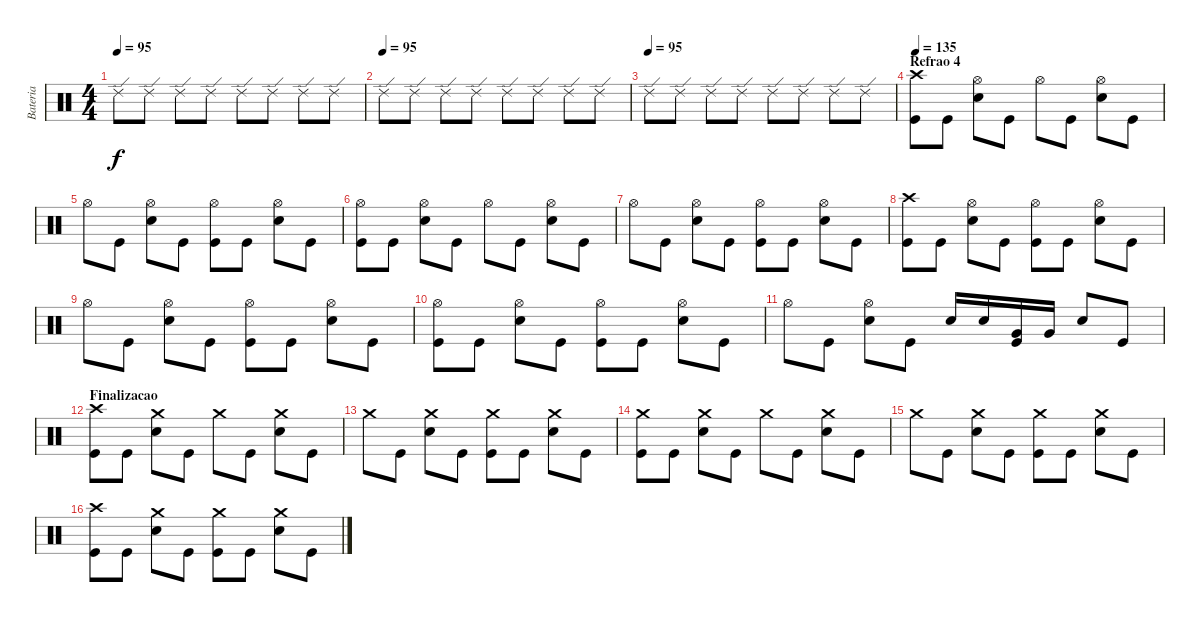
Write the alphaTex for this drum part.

\track ("Bateria" "Bateria") {instrument percussion}
\staff {score}
\articulation defaults
\ts (4 4)
\tempo 95
\clef neutral
\ks c "Ride (edge) 2".8{dy f} "Ride (edge) 2".8 "Ride (edge) 2".8 "Ride (edge) 2".8 "Ride (edge) 2".8 "Ride (edge) 2".8 "Ride (edge) 2".8 "Ride (edge) 2".8
|
\tempo (95)
"Ride (edge) 2".8 "Ride (edge) 2".8 "Ride (edge) 2".8 "Ride (edge) 2".8 "Ride (edge) 2".8 "Ride (edge) 2".8 "Ride (edge) 2".8 "Ride (edge) 2".8 |
\tempo (95)
"Ride (edge) 2".8 "Ride (edge) 2".8 "Ride (edge) 2".8 "Ride (edge) 2".8 "Ride (edge) 2".8 "Ride (edge) 2".8 "Ride (edge) 2".8 "Ride (edge) 2".8 |
\section ("" "Refrao 4")
\tempo 135
("Crash high (hit)" "Kick (hit)").8 "Kick (hit)".8 ("Hi-Hat (open)" "Snare (hit) 2").8 "Kick (hit)".8 "Hi-Hat (open)".8 "Kick (hit)".8 ("Hi-Hat (open)" "Snare (hit) 2").8 "Kick (hit)".8 |
"Hi-Hat (open)".8 "Kick (hit)".8 ("Hi-Hat (open)" "Snare (hit) 2").8 "Kick (hit)".8 ("Hi-Hat (open)" "Kick (hit)").8 "Kick (hit)".8 ("Hi-Hat (open)" "Snare (hit) 2").8 "Kick (hit)".8 |
("Hi-Hat (open)" "Kick (hit)").8 "Kick (hit)".8 ("Hi-Hat (open)" "Snare (hit) 2").8 "Kick (hit)".8 "Hi-Hat (open)".8 "Kick (hit)".8 ("Hi-Hat (open)" "Snare (hit) 2").8 "Kick (hit)".8 |
"Hi-Hat (open)".8 "Kick (hit)".8 ("Hi-Hat (open)" "Snare (hit) 2").8 "Kick (hit)".8 ("Hi-Hat (open)" "Kick (hit)").8 "Kick (hit)".8 ("Hi-Hat (open)" "Snare (hit) 2").8 "Kick (hit)".8 |
("Crash high (hit)" "Kick (hit)").8 "Kick (hit)".8 ("Hi-Hat (open)" "Snare (hit) 2").8 "Kick (hit)".8 ("Hi-Hat (open)" "Kick (hit)").8 "Kick (hit)".8 ("Hi-Hat (open)" "Snare (hit) 2").8 "Kick (hit)".8 |
"Hi-Hat (open)".8 "Kick (hit)".8 ("Hi-Hat (open)" "Snare (hit) 2").8 "Kick (hit)".8 ("Hi-Hat (open)" "Kick (hit)").8 "Kick (hit)".8 ("Hi-Hat (open)" "Snare (hit) 2").8 "Kick (hit)".8 |
("Hi-Hat (open)" "Kick (hit)").8 "Kick (hit)".8 ("Hi-Hat (open)" "Snare (hit) 2").8 "Kick (hit)".8 ("Hi-Hat (open)" "Kick (hit)").8 "Kick (hit)".8 ("Hi-Hat (open)" "Snare (hit) 2").8 "Kick (hit)".8 |
"Hi-Hat (open)".8 "Kick (hit)".8 ("Hi-Hat (open)" "Snare (hit) 2").8 "Kick (hit)".8 "Snare (hit) 2".16 "Snare (hit) 2".16 ("Very Low Tom (hit)" "Kick (hit)").16 "Very Low Tom (hit)".16 "Snare (hit) 2".8 "Kick (hit)".8 |
\section ("" "Finalizacao")
("Crash high (hit)" "Kick (hit)").8 "Kick (hit)".8 ("Crash medium (hit)" "Snare (hit) 2").8 "Kick (hit)".8 "Crash medium (hit)".8 "Kick (hit)".8 ("Crash medium (hit)" "Snare (hit) 2").8 "Kick (hit)".8 |
"Crash medium (hit)".8 "Kick (hit)".8 ("Crash medium (hit)" "Snare (hit) 2").8 "Kick (hit)".8 ("Crash medium (hit)" "Kick (hit)").8 "Kick (hit)".8 ("Crash medium (hit)" "Snare (hit) 2").8 "Kick (hit)".8 |
("Crash medium (hit)" "Kick (hit)").8 "Kick (hit)".8 ("Crash medium (hit)" "Snare (hit) 2").8 "Kick (hit)".8 "Crash medium (hit)".8 "Kick (hit)".8 ("Crash medium (hit)" "Snare (hit) 2").8 "Kick (hit)".8 |
"Crash medium (hit)".8 "Kick (hit)".8 ("Crash medium (hit)" "Snare (hit) 2").8 "Kick (hit)".8 ("Crash medium (hit)" "Kick (hit)").8 "Kick (hit)".8 ("Crash medium (hit)" "Snare (hit) 2").8 "Kick (hit)".8 |
("Crash high (hit)" "Kick (hit)").8 "Kick (hit)".8 ("Crash medium (hit)" "Snare (hit) 2").8 "Kick (hit)".8 ("Crash medium (hit)" "Kick (hit)").8 "Kick (hit)".8 ("Crash medium (hit)" "Snare (hit) 2").8 "Kick (hit)".8
